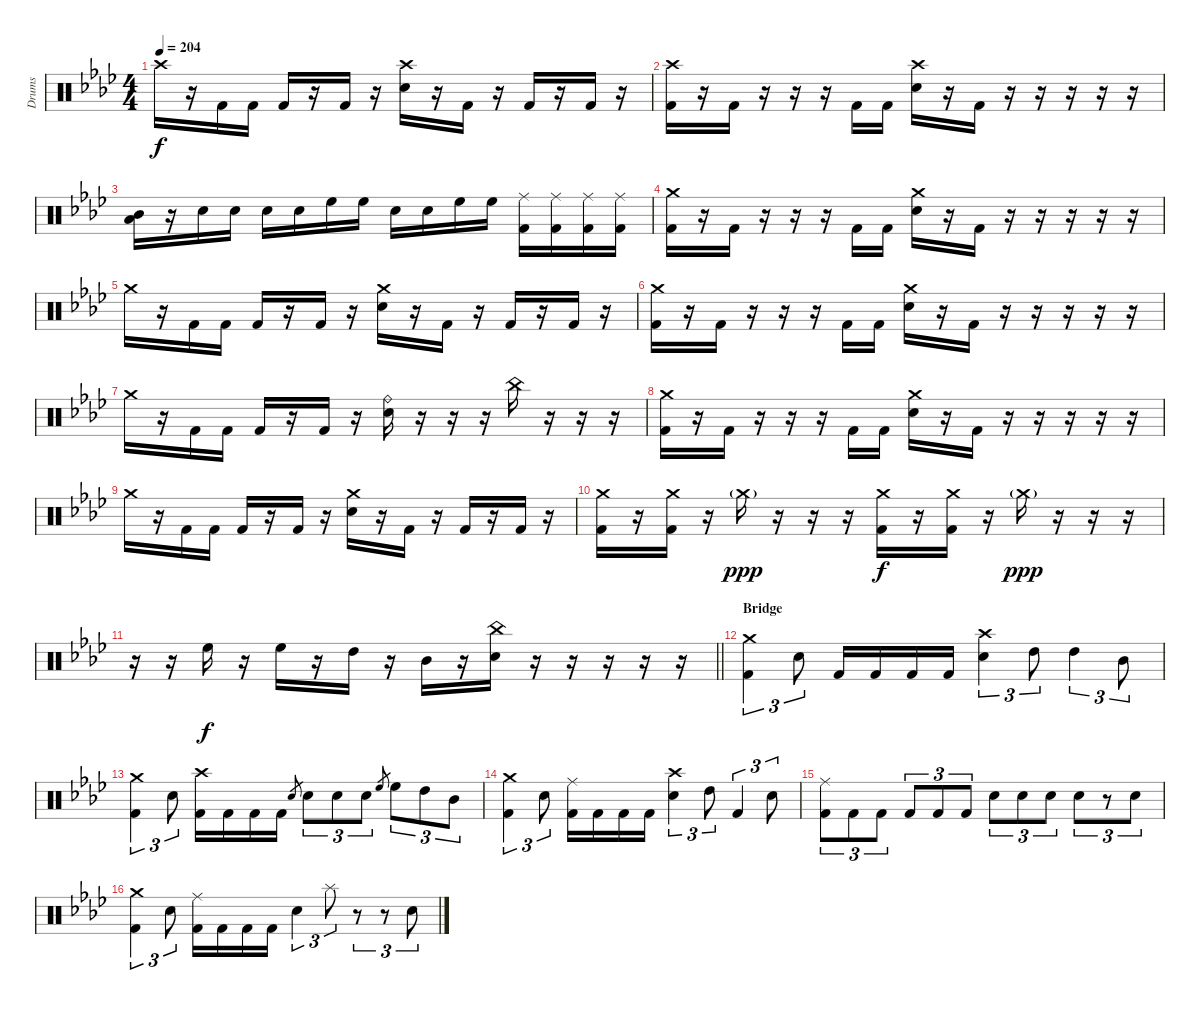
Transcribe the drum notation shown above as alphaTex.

\bracketExtendMode groupsimilarinstruments
\otherSystemsTrackNameOrientation horizontal
\track ("Guyot Begin-Benoit" "Drums") {instrument percussion}
\staff {score}
\articulation defaults
\ts (4 4)
\tempo 204
\clef neutral
\ks ab "Crash high (hit)"{acc forcenatural}.16{dy f beam Down}
r.16{beam Down} "Kick (hit) 2"{acc forcenatural}.16{beam Down} "Kick (hit) 2"{acc forcenatural}.16{beam Down} "Kick (hit) 2"{acc forcenatural}.16{beam Up} r.16{beam Up} "Kick (hit) 2"{acc forcenatural}.16{beam Up} r.16{beam Up} ("Crash high (hit)"{acc forcenatural} "Snare (hit) 2"{acc forcenatural}).16{beam Down} r.16{beam Down} "Kick (hit) 2"{acc forcenatural}.16{beam Down} r.16{beam Down} "Kick (hit) 2"{acc forcenatural}.16{beam Up} r.16{beam Up} "Kick (hit) 2"{acc forcenatural}.16{beam Up} r.16{beam Up} |
("Crash high (hit)"{acc forcenatural} "Kick (hit) 2"{acc forcenatural}).16{beam Down} r.16{beam Down} "Kick (hit) 2"{acc forcenatural}.16{beam Down} r.16{beam Down} r.16{beam Down} r.16{beam Down} "Kick (hit) 2"{acc forcenatural}.16{beam Up} "Kick (hit) 2"{acc forcenatural}.16{beam Up} ("Crash high (hit)"{acc forcenatural} "Snare (hit) 2"{acc forcenatural}).16{beam Down} r.16{beam Down} "Kick (hit) 2"{acc forcenatural}.16{beam Down} r.16{beam Down} r.16{beam Down} r.16{beam Down} r.16{beam Down} r.16{beam Down} |
("Low Tom (hit)"{acc forcenatural} "Mid Tom (hit)"{acc forcenatural}).16{beam Down} r.16{beam Down} "Snare (hit) 2"{acc forcenatural}.16{beam Down} "Snare (hit) 2"{acc forcenatural}.16{beam Down} "Snare (hit) 2"{acc forcenatural}.16{beam Down} "Snare (hit) 2"{acc forcenatural}.16{beam Down} "High Floor Tom (hit)"{acc forcenatural}.16{beam Down} "High Floor Tom (hit)"{acc forcenatural}.16{beam Down} "Snare (hit) 2"{acc forcenatural}.16{beam Down} "Snare (hit) 2"{acc forcenatural}.16{beam Down} "High Floor Tom (hit)"{acc forcenatural}.16{beam Down} "High Floor Tom (hit)"{acc forcenatural}.16{beam Down} ("Ride (middle)"{acc forcenatural} "Kick (hit) 2"{acc forcenatural}).16{beam Down} ("Ride (middle)"{acc forcenatural} "Kick (hit) 2"{acc forcenatural}).16{beam Down} ("Ride (middle)"{acc forcenatural} "Kick (hit) 2"{acc forcenatural}).16{beam Down} ("Ride (middle)"{acc forcenatural} "Kick (hit) 2"{acc forcenatural}).16{beam Down} |
("Crash medium (hit)"{acc forcenatural} "Kick (hit) 2"{acc forcenatural}).16{beam Down} r.16{beam Down} "Kick (hit) 2"{acc forcenatural}.16{beam Down} r.16{beam Down} r.16{beam Down} r.16{beam Down} "Kick (hit) 2"{acc forcenatural}.16{beam Up} "Kick (hit) 2"{acc forcenatural}.16{beam Up} ("Crash medium (hit)"{acc forcenatural} "Snare (hit) 2"{acc forcenatural}).16{beam Down} r.16{beam Down} "Kick (hit) 2"{acc forcenatural}.16{beam Down} r.16{beam Down} r.16{beam Down} r.16{beam Down} r.16{beam Down} r.16{beam Down} |
"Crash medium (hit)"{acc forcenatural}.16{beam Down} r.16{beam Down} "Kick (hit) 2"{acc forcenatural}.16{beam Down} "Kick (hit) 2"{acc forcenatural}.16{beam Down} "Kick (hit) 2"{acc forcenatural}.16{beam Up} r.16{beam Up} "Kick (hit) 2"{acc forcenatural}.16{beam Up} r.16{beam Up} ("Crash medium (hit)"{acc forcenatural} "Snare (hit) 2"{acc forcenatural}).16{beam Down} r.16{beam Down} "Kick (hit) 2"{acc forcenatural}.16{beam Down} r.16{beam Down} "Kick (hit) 2"{acc forcenatural}.16{beam Up} r.16{beam Up} "Kick (hit) 2"{acc forcenatural}.16{beam Up} r.16{beam Up} |
("Crash medium (hit)"{acc forcenatural} "Kick (hit) 2"{acc forcenatural}).16{beam Down} r.16{beam Down} "Kick (hit) 2"{acc forcenatural}.16{beam Down} r.16{beam Down} r.16{beam Down} r.16{beam Down} "Kick (hit) 2"{acc forcenatural}.16{beam Up} "Kick (hit) 2"{acc forcenatural}.16{beam Up} ("Crash medium (hit)"{acc forcenatural} "Snare (hit) 2"{acc forcenatural}).16{beam Down} r.16{beam Down} "Kick (hit) 2"{acc forcenatural}.16{beam Down} r.16{beam Down} r.16{beam Down} r.16{beam Down} r.16{beam Down} r.16{beam Down} |
"Crash medium (hit)"{acc forcenatural}.16{beam Down} r.16{beam Down} "Kick (hit) 2"{acc forcenatural}.16{beam Down} "Kick (hit) 2"{acc forcenatural}.16{beam Down} "Kick (hit) 2"{acc forcenatural}.16{beam Up} r.16{beam Up} "Kick (hit) 2"{acc forcenatural}.16{beam Up} r.16{beam Up} ("Ride (bell)"{acc forcenatural} "Snare (hit) 2"{acc forcenatural}).16{beam Down} r.16{beam Down} r.16{beam Down} r.16{beam Down} "China (hit)"{acc forcenatural}.16{beam Down} r.16{beam Down} r.16{beam Down} r.16{beam Down} |
("Crash medium (hit)"{acc forcenatural} "Kick (hit) 2"{acc forcenatural}).16{beam Down} r.16{beam Down} "Kick (hit) 2"{acc forcenatural}.16{beam Down} r.16{beam Down} r.16{beam Down} r.16{beam Down} "Kick (hit) 2"{acc forcenatural}.16{beam Up} "Kick (hit) 2"{acc forcenatural}.16{beam Up} ("Crash medium (hit)"{acc forcenatural} "Snare (hit) 2"{acc forcenatural}).16{beam Down} r.16{beam Down} "Kick (hit) 2"{acc forcenatural}.16{beam Down} r.16{beam Down} r.16{beam Down} r.16{beam Down} r.16{beam Down} r.16{beam Down} |
"Crash medium (hit)"{acc forcenatural}.16{beam Down} r.16{beam Down} "Kick (hit) 2"{acc forcenatural}.16{beam Down} "Kick (hit) 2"{acc forcenatural}.16{beam Down} "Kick (hit) 2"{acc forcenatural}.16{beam Up} r.16{beam Up} "Kick (hit) 2"{acc forcenatural}.16{beam Up} r.16{beam Up} ("Crash medium (hit)"{acc forcenatural} "Snare (hit) 2"{acc forcenatural}).16{beam Down} r.16{beam Down} "Kick (hit) 2"{acc forcenatural}.16{beam Down} r.16{beam Down} "Kick (hit) 2"{acc forcenatural}.16{beam Up} r.16{beam Up} "Kick (hit) 2"{acc forcenatural}.16{beam Up} r.16{beam Up} |
("Crash medium (hit)"{acc forcenatural} "Kick (hit) 2"{acc forcenatural}).16{beam Down} r.16{beam Down} ("Crash medium (hit)"{acc forcenatural} "Kick (hit) 2"{acc forcenatural}).16{beam Down} r.16{beam Down} "Crash medium (hit)"{g acc forcenatural}.16{dy ppp beam Down} r.16{beam Down} r.16{beam Down} r.16{beam Down} ("Crash medium (hit)"{acc forcenatural} "Kick (hit) 2"{acc forcenatural}).16{dy f beam Down} r.16{beam Down} ("Crash medium (hit)"{acc forcenatural} "Kick (hit) 2"{acc forcenatural}).16{beam Down} r.16{beam Down} "Crash medium (hit)"{g acc forcenatural}.16{dy ppp beam Down} r.16{beam Down} r.16{beam Down} r.16{beam Down} |
\barLineRight lightlight
r.16{beam Down} r.16{beam Down} "High Floor Tom (hit)"{acc forcenatural}.16{dy f beam Down} r.16{beam Down} "High Floor Tom (hit)"{acc forcenatural}.16{beam Down} r.16{beam Down} "High Tom (hit)"{acc forcenatural}.16{beam Down} r.16{beam Down} "Mid Tom (hit)"{acc forcenatural}.16{beam Down} r.16{beam Down} ("China (hit)"{acc forcenatural} "Snare (hit) 2"{acc forcenatural}).16{beam Down} r.16{beam Down} r.16{beam Down} r.16{beam Down} r.16{beam Down} r.16{beam Down} |
\section ("" "Bridge")
("Crash medium (hit)"{acc forcenatural} "Kick (hit) 2"{acc forcenatural}).4{tu (3 2) beam Down} "Snare (hit) 2"{acc forcenatural}.8{tu (3 2) beam Down} "Kick (hit) 2"{acc forcenatural}.16{beam Up} "Kick (hit) 2"{acc forcenatural}.16{beam Up} "Kick (hit) 2"{acc forcenatural}.16{beam Up} "Kick (hit) 2"{acc forcenatural}.16{beam Up} ("Crash high (hit)"{acc forcenatural} "Snare (hit) 2"{acc forcenatural}).4{tu (3 2) beam Down} "High Tom (hit)"{acc forcenatural}.8{tu (3 2) beam Down} "High Tom (hit)"{acc forcenatural}.4{tu (3 2) beam Down} "Mid Tom (hit)"{acc forcenatural}.8{tu (3 2) beam Down} |
("Crash medium (hit)"{acc forcenatural} "Kick (hit) 2"{acc forcenatural}).4{tu (3 2) beam Down} "Snare (hit) 2"{acc forcenatural}.8{tu (3 2) beam Down} ("Crash high (hit)"{acc forcenatural} "Kick (hit) 2"{acc forcenatural}).16{beam Down} "Kick (hit) 2"{acc forcenatural}.16{beam Down} "Kick (hit) 2"{acc forcenatural}.16{beam Down} "Kick (hit) 2"{acc forcenatural}.16{beam Down} "Snare (hit) 2"{acc forcenatural}.8{gr beam Up} "Snare (hit) 2"{acc forcenatural}.8{tu (3 2) beam Down} "Snare (hit) 2"{acc forcenatural}.8{tu (3 2) beam Down} "Snare (hit) 2"{acc forcenatural}.8{tu (3 2) beam Down} "High Floor Tom (hit)"{acc forcenatural}.8{gr beam Up} "High Floor Tom (hit)"{acc forcenatural}.8{tu (3 2) beam Down} "High Tom (hit)"{acc forcenatural}.8{tu (3 2) beam Down} "Mid Tom (hit)"{acc forcenatural}.8{tu (3 2) beam Down} |
("Crash medium (hit)"{acc forcenatural} "Kick (hit) 2"{acc forcenatural}).4{tu (3 2) beam Down} "Snare (hit) 2"{acc forcenatural}.8{tu (3 2) beam Down} ("Ride (middle)"{acc forcenatural} "Kick (hit) 2"{acc forcenatural}).16{beam Down} "Kick (hit) 2"{acc forcenatural}.16{beam Down} "Kick (hit) 2"{acc forcenatural}.16{beam Down} "Kick (hit) 2"{acc forcenatural}.16{beam Down} ("Crash high (hit)"{acc forcenatural} "Snare (hit) 2"{acc forcenatural}).4{tu (3 2) beam Down} "High Tom (hit)"{acc forcenatural}.8{tu (3 2) beam Down} "Kick (hit) 2"{acc forcenatural}.4{tu (3 2) beam Up} "Snare (hit) 2"{acc forcenatural}.8{tu (3 2) beam Down} |
("Ride (middle)"{acc forcenatural} "Kick (hit) 2"{acc forcenatural}).8{tu (3 2) beam Down} "Kick (hit) 2"{acc forcenatural}.8{tu (3 2) beam Down} "Kick (hit) 2"{acc forcenatural}.8{tu (3 2) beam Down} "Kick (hit) 2"{acc forcenatural}.8{tu (3 2) beam Up} "Kick (hit) 2"{acc forcenatural}.8{tu (3 2) beam Up} "Kick (hit) 2"{acc forcenatural}.8{tu (3 2) beam Up} "Snare (hit) 2"{acc forcenatural}.8{tu (3 2) beam Down} "Snare (hit) 2"{acc forcenatural}.8{tu (3 2) beam Down} "Snare (hit) 2"{acc forcenatural}.8{tu (3 2) beam Down} "Snare (hit) 2"{acc forcenatural}.8{tu (3 2) beam Down} r.8{tu (3 2) beam Down} "Snare (hit) 2"{acc forcenatural}.8{tu (3 2) beam Down} |
("Crash medium (hit)"{acc forcenatural} "Kick (hit) 2"{acc forcenatural}).4{tu (3 2) beam Down} "Snare (hit) 2"{acc forcenatural}.8{tu (3 2) beam Down} ("Ride (middle)"{acc forcenatural} "Kick (hit) 2"{acc forcenatural}).16{beam Down} "Kick (hit) 2"{acc forcenatural}.16{beam Down} "Kick (hit) 2"{acc forcenatural}.16{beam Down} "Kick (hit) 2"{acc forcenatural}.16{beam Down} "Snare (hit) 2"{acc forcenatural}.4{tu (3 2) beam Down} "Splash (hit)"{acc forcenatural}.8{tu (3 2) beam Down} r.8{tu (3 2) beam Down} r.8{tu (3 2) beam Down} "Snare (hit) 2"{acc forcenatural}.8{tu (3 2) beam Down}
